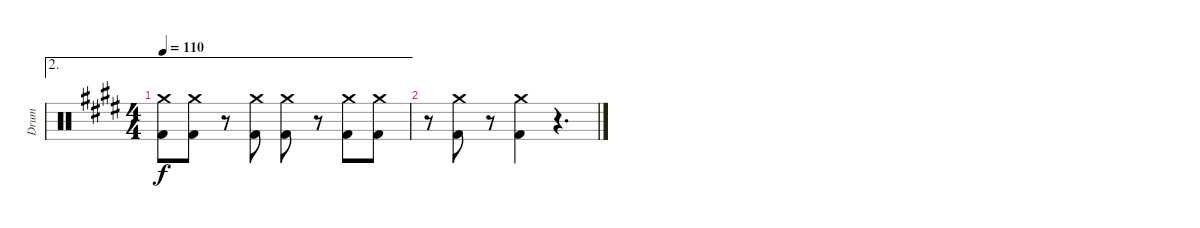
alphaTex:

\track ("Drum" "Drum") {instrument percussion}
\staff {score}
\articulation defaults
\ae 2
\ts (4 4)
\tempo 110
\clef neutral
\ks c#minor
("Crash medium (hit)" "Kick (hit) 2").8{dy f} ("Crash medium (hit)" "Kick (hit) 2").8 r.8 ("Crash medium (hit)" "Kick (hit) 2").8 ("Crash medium (hit)" "Kick (hit) 2").8 r.8 ("Crash medium (hit)" "Kick (hit) 2").8 ("Crash medium (hit)" "Kick (hit) 2").8 |
r.8 ("Crash medium (hit)" "Kick (hit) 2").8 r.8 ("Crash medium (hit)" "Kick (hit) 2").4 r.4{d}
